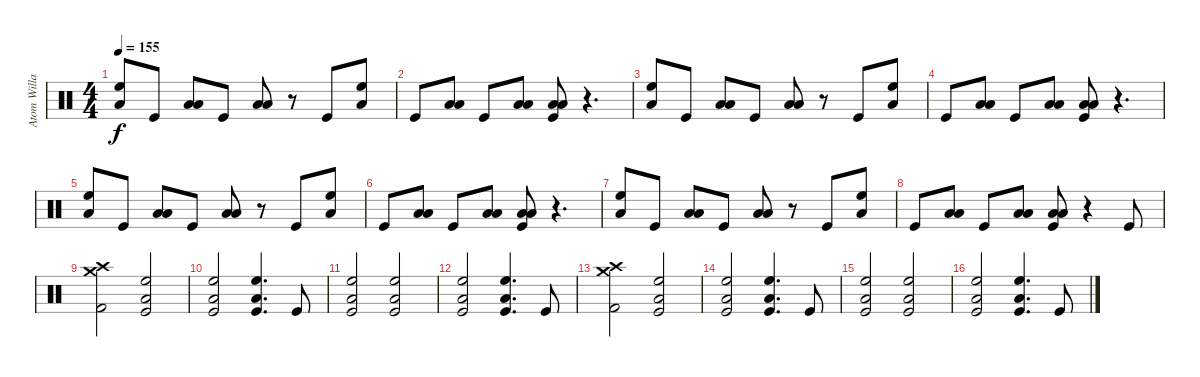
\track ("Atom Willard Drums" "Atom Willa") {instrument percussion}
\staff {score}
\articulation defaults
\ts (4 4)
\tempo 155
\clef neutral
\ks c
("High Floor Tom (hit)" "Low Tom (hit)").8{dy f} "Kick (hit)".8 ("Low Tom (hit)" "Low Tom (hit)").8 "Kick (hit)".8 ("Low Tom (hit)" "Low Tom (hit)").8 r.8 "Kick (hit)".8 ("High Floor Tom (hit)" "Low Tom (hit)").8 |
"Kick (hit)".8 ("Low Tom (hit)" "Low Tom (hit)").8 "Kick (hit)".8 ("Low Tom (hit)" "Low Tom (hit)").8 ("Low Tom (hit)" "Low Tom (hit)" "Kick (hit)").8 r.4{d} |
("High Floor Tom (hit)" "Low Tom (hit)").8 "Kick (hit)".8 ("Low Tom (hit)" "Low Tom (hit)").8 "Kick (hit)".8 ("Low Tom (hit)" "Low Tom (hit)").8 r.8 "Kick (hit)".8 ("High Floor Tom (hit)" "Low Tom (hit)").8 |
"Kick (hit)".8 ("Low Tom (hit)" "Low Tom (hit)").8 "Kick (hit)".8 ("Low Tom (hit)" "Low Tom (hit)").8 ("Low Tom (hit)" "Low Tom (hit)" "Kick (hit)").8 r.4{d} |
("High Floor Tom (hit)" "Low Tom (hit)").8 "Kick (hit)".8 ("Low Tom (hit)" "Low Tom (hit)").8 "Kick (hit)".8 ("Low Tom (hit)" "Low Tom (hit)").8 r.8 "Kick (hit)".8 ("High Floor Tom (hit)" "Low Tom (hit)").8 |
"Kick (hit)".8 ("Low Tom (hit)" "Low Tom (hit)").8 "Kick (hit)".8 ("Low Tom (hit)" "Low Tom (hit)").8 ("Low Tom (hit)" "Low Tom (hit)" "Kick (hit)").8 r.4{d} |
("High Floor Tom (hit)" "Low Tom (hit)").8 "Kick (hit)".8 ("Low Tom (hit)" "Low Tom (hit)").8 "Kick (hit)".8 ("Low Tom (hit)" "Low Tom (hit)").8 r.8 "Kick (hit)".8 ("High Floor Tom (hit)" "Low Tom (hit)").8 |
"Kick (hit)".8 ("Low Tom (hit)" "Low Tom (hit)").8 "Kick (hit)".8 ("Low Tom (hit)" "Low Tom (hit)").8 ("Low Tom (hit)" "Low Tom (hit)" "Kick (hit)").8 r.4 "Kick (hit)".8 |
("Crash medium (hit)" "Kick (hit) 2" "Crash high (hit)").2 ("Low Tom (hit)" "High Floor Tom (hit)" "Kick (hit)").2 |
("High Floor Tom (hit)" "Low Tom (hit)" "Kick (hit)").2 ("Kick (hit)" "Low Tom (hit)" "High Floor Tom (hit)").4{d} "Kick (hit)".8 |
("Low Tom (hit)" "High Floor Tom (hit)" "Kick (hit)").2 ("Low Tom (hit)" "High Floor Tom (hit)" "Kick (hit)").2 |
("High Floor Tom (hit)" "Low Tom (hit)" "Kick (hit)").2 ("Kick (hit)" "Low Tom (hit)" "High Floor Tom (hit)").4{d} "Kick (hit)".8 |
("Crash medium (hit)" "Kick (hit) 2" "Crash high (hit)").2 ("Low Tom (hit)" "High Floor Tom (hit)" "Kick (hit)").2 |
("High Floor Tom (hit)" "Low Tom (hit)" "Kick (hit)").2 ("Kick (hit)" "Low Tom (hit)" "High Floor Tom (hit)").4{d} "Kick (hit)".8 |
("Low Tom (hit)" "High Floor Tom (hit)" "Kick (hit)").2 ("Low Tom (hit)" "High Floor Tom (hit)" "Kick (hit)").2 |
("High Floor Tom (hit)" "Low Tom (hit)" "Kick (hit)").2 ("Kick (hit)" "Low Tom (hit)" "High Floor Tom (hit)").4{d} "Kick (hit)".8
